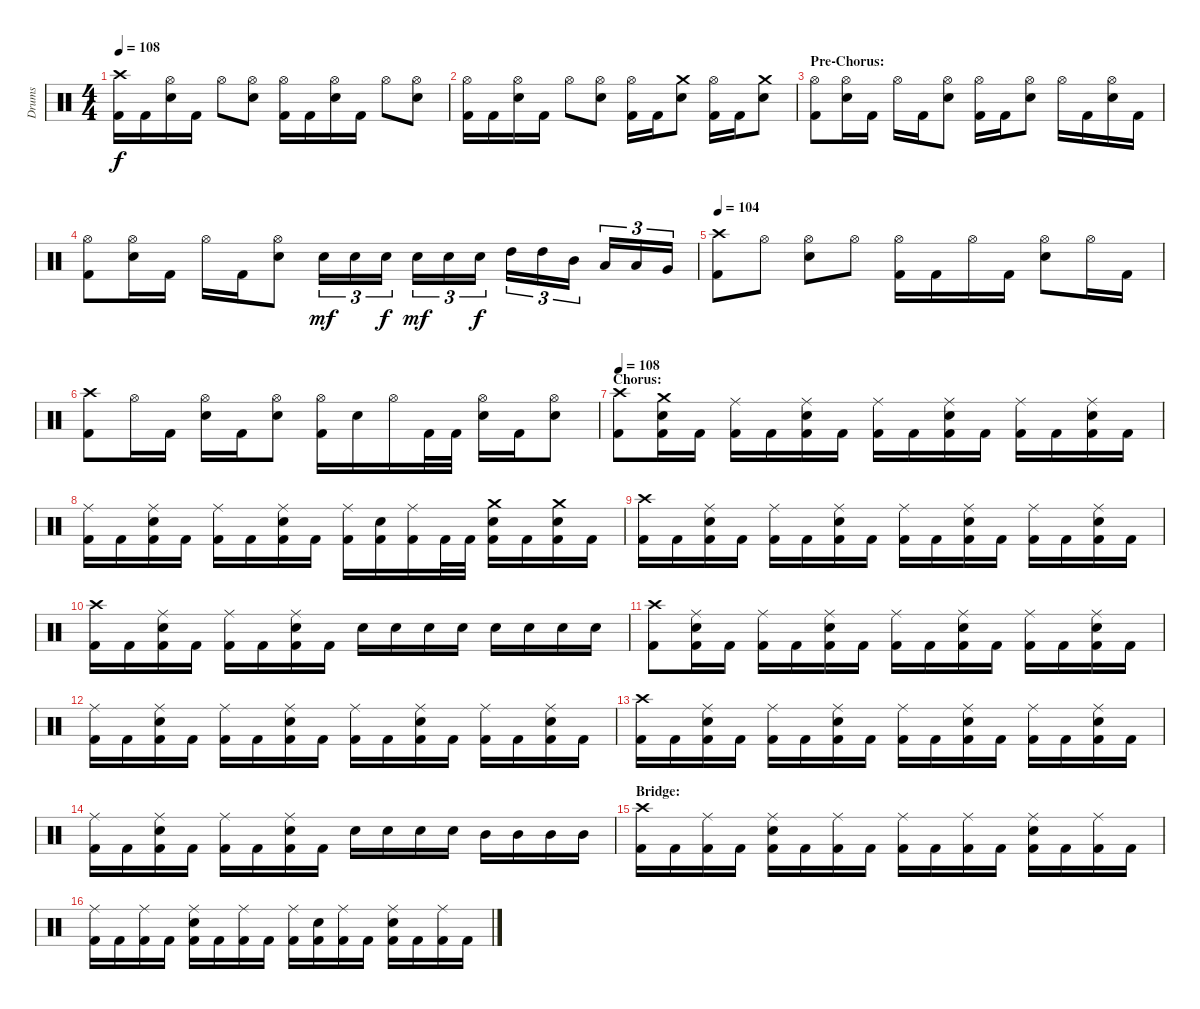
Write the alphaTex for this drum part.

\track ("Drums" "Drums") {instrument percussion}
\staff {score}
\articulation defaults
\ts (4 4)
\tempo 108
\clef neutral
\ks c
("Crash high (hit)" "Kick (hit) 2").16{dy f} "Kick (hit) 2".16 ("Hi-Hat (open)" "Electric Snare (hit)").16 "Kick (hit) 2".16 "Hi-Hat (open)".8 ("Hi-Hat (open)" "Electric Snare (hit)").8 ("Hi-Hat (open)" "Kick (hit) 2").16 "Kick (hit) 2".16 ("Hi-Hat (open)" "Electric Snare (hit)").16 "Kick (hit) 2".16 "Hi-Hat (open)".8 ("Hi-Hat (open)" "Electric Snare (hit)").8 |
("Hi-Hat (open)" "Kick (hit) 2").16 "Kick (hit) 2".16 ("Hi-Hat (open)" "Electric Snare (hit)").16 "Kick (hit) 2".16 "Hi-Hat (open)".8 ("Hi-Hat (open)" "Electric Snare (hit)").8 ("Hi-Hat (open)" "Kick (hit) 2").16 "Kick (hit) 2".16 ("Crash medium (hit)" "Electric Snare (hit)").8 ("Hi-Hat (open)" "Kick (hit) 2").16 "Kick (hit) 2".16 ("Crash medium (hit)" "Electric Snare (hit)").8 |
\section ("" "Pre-Chorus:")
("Hi-Hat (open)" "Kick (hit) 2").8 ("Hi-Hat (open)" "Electric Snare (hit)").16 "Kick (hit) 2".16 "Hi-Hat (open)".16 "Kick (hit) 2".16 ("Hi-Hat (open)" "Electric Snare (hit)").8 ("Hi-Hat (open)" "Kick (hit) 2").16 "Kick (hit) 2".16 ("Hi-Hat (open)" "Electric Snare (hit)").8 "Hi-Hat (open)".16 "Kick (hit) 2".16 ("Hi-Hat (open)" "Electric Snare (hit)").16 "Kick (hit) 2".16 |
("Hi-Hat (open)" "Kick (hit) 2").8 ("Hi-Hat (open)" "Electric Snare (hit)").16 "Kick (hit) 2".16 "Hi-Hat (open)".16 "Kick (hit) 2".16 ("Hi-Hat (open)" "Electric Snare (hit)").8 "Electric Snare (hit)".16{tu (3 2) dy mf} "Electric Snare (hit)".16{tu (3 2)} "Electric Snare (hit)".16{tu (3 2) dy f} "Electric Snare (hit)".16{tu (3 2) dy mf} "Electric Snare (hit)".16{tu (3 2)} "Electric Snare (hit)".16{tu (3 2) dy f} "High Tom (hit)".16{tu (3 2)} "High Tom (hit)".16{tu (3 2)} "Mid Tom (hit)".16{tu (3 2)} "Low Tom (hit)".16{tu (3 2)} "Low Tom (hit)".16{tu (3 2)} "Very Low Tom (hit)".16{tu (3 2)} |
\tempo 104
("Crash high (hit)" "Kick (hit) 2").8 "Hi-Hat (open)".8 ("Hi-Hat (open)" "Electric Snare (hit)").8 "Hi-Hat (open)".8 ("Hi-Hat (open)" "Kick (hit) 2").16 "Kick (hit) 2".16 "Hi-Hat (open)".16 "Kick (hit) 2".16 ("Hi-Hat (open)" "Electric Snare (hit)").8 "Hi-Hat (open)".16 "Kick (hit) 2".16 |
("Crash high (hit)" "Kick (hit) 2").8 "Hi-Hat (open)".16 "Kick (hit) 2".16 ("Hi-Hat (open)" "Electric Snare (hit)").16 "Kick (hit) 2".16 ("Hi-Hat (open)" "Electric Snare (hit)").8 ("Hi-Hat (open)" "Kick (hit) 2").16 "Electric Snare (hit)".16 "Hi-Hat (open)".16 "Kick (hit) 2".32 "Kick (hit) 2".32 ("Hi-Hat (open)" "Electric Snare (hit)").16 "Kick (hit) 2".16 ("Hi-Hat (open)" "Electric Snare (hit)").8 |
\section ("" "Chorus:")
\tempo 108
("Crash high (hit)" "Kick (hit) 2").8 ("Crash medium (hit)" "Electric Snare (hit)" "Kick (hit) 2").16 "Kick (hit) 2".16 ("Ride (middle)" "Kick (hit) 2").16 "Kick (hit) 2".16 ("Ride (middle)" "Electric Snare (hit)" "Kick (hit) 2").16 "Kick (hit) 2".16 ("Ride (middle)" "Kick (hit) 2").16 "Kick (hit) 2".16 ("Ride (middle)" "Electric Snare (hit)" "Kick (hit) 2").16 "Kick (hit) 2".16 ("Ride (middle)" "Kick (hit) 2").16 "Kick (hit) 2".16 ("Ride (middle)" "Electric Snare (hit)" "Kick (hit) 2").16 "Kick (hit) 2".16 |
("Ride (middle)" "Kick (hit) 2").16 "Kick (hit) 2".16 ("Ride (middle)" "Electric Snare (hit)" "Kick (hit) 2").16 "Kick (hit) 2".16 ("Ride (middle)" "Kick (hit) 2").16 "Kick (hit) 2".16 ("Ride (middle)" "Electric Snare (hit)" "Kick (hit) 2").16 "Kick (hit) 2".16 ("Ride (middle)" "Kick (hit) 2").16 ("Electric Snare (hit)" "Kick (hit) 2").16 ("Ride (middle)" "Kick (hit) 2").16 "Kick (hit) 2".32 "Kick (hit) 2".32 ("Crash medium (hit)" "Electric Snare (hit)" "Kick (hit) 2").16 "Kick (hit) 2".16 ("Crash medium (hit)" "Electric Snare (hit)" "Kick (hit) 2").16 "Kick (hit) 2".16 |
("Crash high (hit)" "Kick (hit) 2").16 "Kick (hit) 2".16 ("Ride (middle)" "Electric Snare (hit)" "Kick (hit) 2").16 "Kick (hit) 2".16 ("Ride (middle)" "Kick (hit) 2").16 "Kick (hit) 2".16 ("Ride (middle)" "Electric Snare (hit)" "Kick (hit) 2").16 "Kick (hit) 2".16 ("Ride (middle)" "Kick (hit) 2").16 "Kick (hit) 2".16 ("Ride (middle)" "Electric Snare (hit)" "Kick (hit) 2").16 "Kick (hit) 2".16 ("Ride (middle)" "Kick (hit) 2").16 "Kick (hit) 2".16 ("Ride (middle)" "Electric Snare (hit)" "Kick (hit) 2").16 "Kick (hit) 2".16 |
("Crash high (hit)" "Kick (hit) 2").16 "Kick (hit) 2".16 ("Ride (middle)" "Electric Snare (hit)" "Kick (hit) 2").16 "Kick (hit) 2".16 ("Ride (middle)" "Kick (hit) 2").16 "Kick (hit) 2".16 ("Ride (middle)" "Electric Snare (hit)" "Kick (hit) 2").16 "Kick (hit) 2".16 "Electric Snare (hit)".16 "Electric Snare (hit)".16 "Electric Snare (hit)".16 "Electric Snare (hit)".16 "Electric Snare (hit)".16 "Electric Snare (hit)".16 "Electric Snare (hit)".16 "Electric Snare (hit)".16 |
("Crash high (hit)" "Kick (hit) 2").8 ("Ride (middle)" "Electric Snare (hit)" "Kick (hit) 2").16 "Kick (hit) 2".16 ("Ride (middle)" "Kick (hit) 2").16 "Kick (hit) 2".16 ("Ride (middle)" "Electric Snare (hit)" "Kick (hit) 2").16 "Kick (hit) 2".16 ("Ride (middle)" "Kick (hit) 2").16 "Kick (hit) 2".16 ("Ride (middle)" "Electric Snare (hit)" "Kick (hit) 2").16 "Kick (hit) 2".16 ("Ride (middle)" "Kick (hit) 2").16 "Kick (hit) 2".16 ("Ride (middle)" "Electric Snare (hit)" "Kick (hit) 2").16 "Kick (hit) 2".16 |
("Ride (middle)" "Kick (hit) 2").16 "Kick (hit) 2".16 ("Ride (middle)" "Electric Snare (hit)" "Kick (hit) 2").16 "Kick (hit) 2".16 ("Ride (middle)" "Kick (hit) 2").16 "Kick (hit) 2".16 ("Ride (middle)" "Electric Snare (hit)" "Kick (hit) 2").16 "Kick (hit) 2".16 ("Ride (middle)" "Kick (hit) 2").16 "Kick (hit) 2".16 ("Ride (middle)" "Electric Snare (hit)" "Kick (hit) 2").16 "Kick (hit) 2".16 ("Ride (middle)" "Kick (hit) 2").16 "Kick (hit) 2".16 ("Ride (middle)" "Electric Snare (hit)" "Kick (hit) 2").16 "Kick (hit) 2".16 |
("Crash high (hit)" "Kick (hit) 2").16 "Kick (hit) 2".16 ("Ride (middle)" "Electric Snare (hit)" "Kick (hit) 2").16 "Kick (hit) 2".16 ("Ride (middle)" "Kick (hit) 2").16 "Kick (hit) 2".16 ("Ride (middle)" "Electric Snare (hit)" "Kick (hit) 2").16 "Kick (hit) 2".16 ("Ride (middle)" "Kick (hit) 2").16 "Kick (hit) 2".16 ("Ride (middle)" "Electric Snare (hit)" "Kick (hit) 2").16 "Kick (hit) 2".16 ("Ride (middle)" "Kick (hit) 2").16 "Kick (hit) 2".16 ("Ride (middle)" "Electric Snare (hit)" "Kick (hit) 2").16 "Kick (hit) 2".16 |
("Ride (middle)" "Kick (hit) 2").16 "Kick (hit) 2".16 ("Ride (middle)" "Electric Snare (hit)" "Kick (hit) 2").16 "Kick (hit) 2".16 ("Ride (middle)" "Kick (hit) 2").16 "Kick (hit) 2".16 ("Ride (middle)" "Electric Snare (hit)" "Kick (hit) 2").16 "Kick (hit) 2".16 "Electric Snare (hit)".16 "Electric Snare (hit)".16 "Electric Snare (hit)".16 "Electric Snare (hit)".16 "Mid Tom (hit)".16 "Mid Tom (hit)".16 "Mid Tom (hit)".16 "Mid Tom (hit)".16 |
\section ("" "Bridge:")
("Crash high (hit)" "Kick (hit) 2").16 "Kick (hit) 2".16 ("Ride (middle)" "Kick (hit) 2").16 "Kick (hit) 2".16 ("Ride (middle)" "Electric Snare (hit)" "Kick (hit) 2").16 "Kick (hit) 2".16 ("Ride (middle)" "Kick (hit) 2").16 "Kick (hit) 2".16 ("Ride (middle)" "Kick (hit) 2").16 "Kick (hit) 2".16 ("Ride (middle)" "Kick (hit) 2").16 "Kick (hit) 2".16 ("Ride (middle)" "Electric Snare (hit)" "Kick (hit) 2").16 "Kick (hit) 2".16 ("Ride (middle)" "Kick (hit) 2").16 "Kick (hit) 2".16 |
("Ride (middle)" "Kick (hit) 2").16 "Kick (hit) 2".16 ("Ride (middle)" "Kick (hit) 2").16 "Kick (hit) 2".16 ("Ride (middle)" "Electric Snare (hit)" "Kick (hit) 2").16 "Kick (hit) 2".16 ("Ride (middle)" "Kick (hit) 2").16 "Kick (hit) 2".16 ("Ride (middle)" "Kick (hit) 2").16 ("Electric Snare (hit)" "Kick (hit) 2").16 ("Ride (middle)" "Kick (hit) 2").16 "Kick (hit) 2".16 ("Ride (middle)" "Electric Snare (hit)" "Kick (hit) 2").16 "Kick (hit) 2".16 ("Ride (middle)" "Kick (hit) 2").16 "Kick (hit) 2".16
